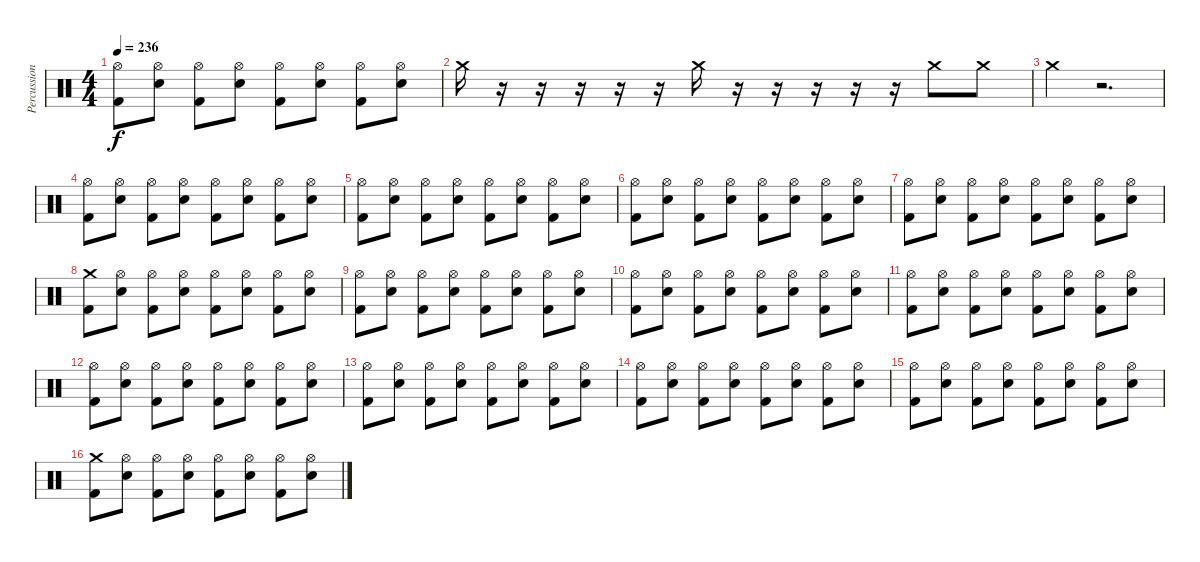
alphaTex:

\track ("Percussion" "Percussion") {instrument percussion}
\staff {score}
\articulation defaults
\ts (4 4)
\tempo 236
\clef neutral
\ks c
("Hi-Hat (open)" "Kick (hit) 2").8{dy f} ("Hi-Hat (open)" "Snare (hit) 2").8 ("Hi-Hat (open)" "Kick (hit) 2").8 ("Hi-Hat (open)" "Snare (hit) 2").8 ("Hi-Hat (open)" "Kick (hit) 2").8 ("Hi-Hat (open)" "Snare (hit) 2").8 ("Hi-Hat (open)" "Kick (hit) 2").8 ("Hi-Hat (open)" "Snare (hit) 2").8 |
"Crash medium (hit)".16 r.16 r.16 r.16 r.16 r.16 "Crash medium (hit)".16 r.16 r.16 r.16 r.16 r.16 "Crash medium (hit)".8 "Crash medium (hit)".8 |
"Crash medium (hit)".4 r.2{d} |
("Hi-Hat (open)" "Kick (hit) 2").8 ("Hi-Hat (open)" "Snare (hit) 2").8 ("Hi-Hat (open)" "Kick (hit) 2").8 ("Hi-Hat (open)" "Snare (hit) 2").8 ("Hi-Hat (open)" "Kick (hit) 2").8 ("Hi-Hat (open)" "Snare (hit) 2").8 ("Hi-Hat (open)" "Kick (hit) 2").8 ("Hi-Hat (open)" "Snare (hit) 2").8 |
("Hi-Hat (open)" "Kick (hit) 2").8 ("Hi-Hat (open)" "Snare (hit) 2").8 ("Hi-Hat (open)" "Kick (hit) 2").8 ("Hi-Hat (open)" "Snare (hit) 2").8 ("Hi-Hat (open)" "Kick (hit) 2").8 ("Hi-Hat (open)" "Snare (hit) 2").8 ("Hi-Hat (open)" "Kick (hit) 2").8 ("Hi-Hat (open)" "Snare (hit) 2").8 |
("Hi-Hat (open)" "Kick (hit) 2").8 ("Hi-Hat (open)" "Snare (hit) 2").8 ("Hi-Hat (open)" "Kick (hit) 2").8 ("Hi-Hat (open)" "Snare (hit) 2").8 ("Hi-Hat (open)" "Kick (hit) 2").8 ("Hi-Hat (open)" "Snare (hit) 2").8 ("Hi-Hat (open)" "Kick (hit) 2").8 ("Hi-Hat (open)" "Snare (hit) 2").8 |
("Hi-Hat (open)" "Kick (hit) 2").8 ("Hi-Hat (open)" "Snare (hit) 2").8 ("Hi-Hat (open)" "Kick (hit) 2").8 ("Hi-Hat (open)" "Snare (hit) 2").8 ("Hi-Hat (open)" "Kick (hit) 2").8 ("Hi-Hat (open)" "Snare (hit) 2").8 ("Hi-Hat (open)" "Kick (hit) 2").8 ("Hi-Hat (open)" "Snare (hit) 2").8 |
("Crash medium (hit)" "Kick (hit) 2").8 ("Hi-Hat (open)" "Snare (hit) 2").8 ("Hi-Hat (open)" "Kick (hit) 2").8 ("Hi-Hat (open)" "Snare (hit) 2").8 ("Hi-Hat (open)" "Kick (hit) 2").8 ("Hi-Hat (open)" "Snare (hit) 2").8 ("Hi-Hat (open)" "Kick (hit) 2").8 ("Hi-Hat (open)" "Snare (hit) 2").8 |
("Hi-Hat (open)" "Kick (hit) 2").8 ("Hi-Hat (open)" "Snare (hit) 2").8 ("Hi-Hat (open)" "Kick (hit) 2").8 ("Hi-Hat (open)" "Snare (hit) 2").8 ("Hi-Hat (open)" "Kick (hit) 2").8 ("Hi-Hat (open)" "Snare (hit) 2").8 ("Hi-Hat (open)" "Kick (hit) 2").8 ("Hi-Hat (open)" "Snare (hit) 2").8 |
("Hi-Hat (open)" "Kick (hit) 2").8 ("Hi-Hat (open)" "Snare (hit) 2").8 ("Hi-Hat (open)" "Kick (hit) 2").8 ("Hi-Hat (open)" "Snare (hit) 2").8 ("Hi-Hat (open)" "Kick (hit) 2").8 ("Hi-Hat (open)" "Snare (hit) 2").8 ("Hi-Hat (open)" "Kick (hit) 2").8 ("Hi-Hat (open)" "Snare (hit) 2").8 |
("Hi-Hat (open)" "Kick (hit) 2").8 ("Hi-Hat (open)" "Snare (hit) 2").8 ("Hi-Hat (open)" "Kick (hit) 2").8 ("Hi-Hat (open)" "Snare (hit) 2").8 ("Hi-Hat (open)" "Kick (hit) 2").8 ("Hi-Hat (open)" "Snare (hit) 2").8 ("Hi-Hat (open)" "Kick (hit) 2").8 ("Hi-Hat (open)" "Snare (hit) 2").8 |
("Hi-Hat (open)" "Kick (hit) 2").8 ("Hi-Hat (open)" "Snare (hit) 2").8 ("Hi-Hat (open)" "Kick (hit) 2").8 ("Hi-Hat (open)" "Snare (hit) 2").8 ("Hi-Hat (open)" "Kick (hit) 2").8 ("Hi-Hat (open)" "Snare (hit) 2").8 ("Hi-Hat (open)" "Kick (hit) 2").8 ("Hi-Hat (open)" "Snare (hit) 2").8 |
("Hi-Hat (open)" "Kick (hit) 2").8 ("Hi-Hat (open)" "Snare (hit) 2").8 ("Hi-Hat (open)" "Kick (hit) 2").8 ("Hi-Hat (open)" "Snare (hit) 2").8 ("Hi-Hat (open)" "Kick (hit) 2").8 ("Hi-Hat (open)" "Snare (hit) 2").8 ("Hi-Hat (open)" "Kick (hit) 2").8 ("Hi-Hat (open)" "Snare (hit) 2").8 |
("Hi-Hat (open)" "Kick (hit) 2").8 ("Hi-Hat (open)" "Snare (hit) 2").8 ("Hi-Hat (open)" "Kick (hit) 2").8 ("Hi-Hat (open)" "Snare (hit) 2").8 ("Hi-Hat (open)" "Kick (hit) 2").8 ("Hi-Hat (open)" "Snare (hit) 2").8 ("Hi-Hat (open)" "Kick (hit) 2").8 ("Hi-Hat (open)" "Snare (hit) 2").8 |
("Hi-Hat (open)" "Kick (hit) 2").8 ("Hi-Hat (open)" "Snare (hit) 2").8 ("Hi-Hat (open)" "Kick (hit) 2").8 ("Hi-Hat (open)" "Snare (hit) 2").8 ("Hi-Hat (open)" "Kick (hit) 2").8 ("Hi-Hat (open)" "Snare (hit) 2").8 ("Hi-Hat (open)" "Kick (hit) 2").8 ("Hi-Hat (open)" "Snare (hit) 2").8 |
("Crash medium (hit)" "Kick (hit) 2").8 ("Hi-Hat (open)" "Snare (hit) 2").8 ("Hi-Hat (open)" "Kick (hit) 2").8 ("Hi-Hat (open)" "Snare (hit) 2").8 ("Hi-Hat (open)" "Kick (hit) 2").8 ("Hi-Hat (open)" "Snare (hit) 2").8 ("Hi-Hat (open)" "Kick (hit) 2").8 ("Hi-Hat (open)" "Snare (hit) 2").8
